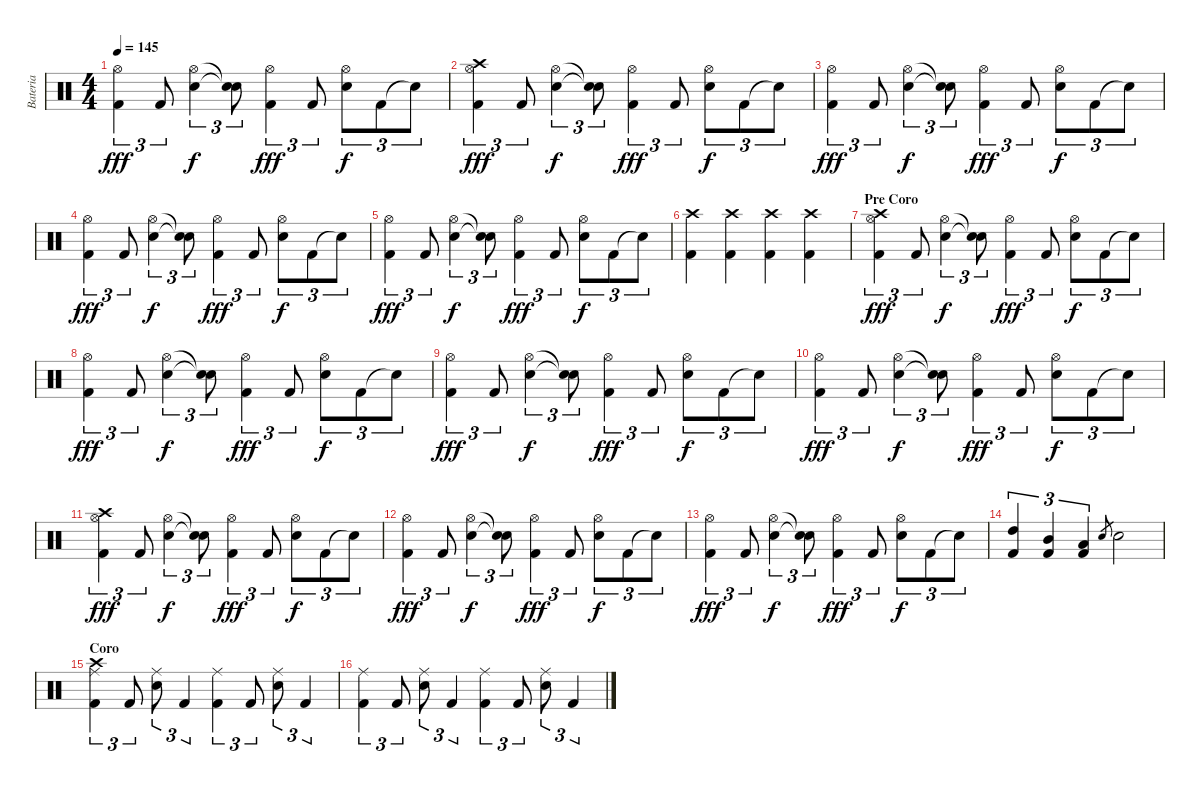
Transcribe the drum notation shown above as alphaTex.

\track ("Bateria" "Bateria") {instrument percussion}
\staff {score}
\articulation defaults
\ts (4 4)
\tempo 145
\clef neutral
\ks c
("Hi-Hat (open)" "Kick (hit) 2").4{tu (3 2) dy fff} "Kick (hit) 2".8{tu (3 2)} ("Hi-Hat (open)" "Snare (hit) 2").4{tu (3 2) dy f} ("Snare (hit)"{t} "Snare (hit)"{t}).8{tu (3 2)} ("Hi-Hat (open)" "Kick (hit) 2").4{tu (3 2) dy fff} "Kick (hit) 2".8{tu (3 2)} ("Hi-Hat (open)" "Snare (hit) 2").8{tu (3 2) dy f} "Kick (hit) 2".8{tu (3 2)} "Snare (hit)"{t}.8{tu (3 2)} |
("Hi-Hat (open)" "Kick (hit) 2" "Crash high (hit)").4{tu (3 2) dy fff} "Kick (hit) 2".8{tu (3 2)} ("Hi-Hat (open)" "Snare (hit) 2").4{tu (3 2) dy f} ("Snare (hit)"{t} "Snare (hit)"{t}).8{tu (3 2)} ("Hi-Hat (open)" "Kick (hit) 2").4{tu (3 2) dy fff} "Kick (hit) 2".8{tu (3 2)} ("Hi-Hat (open)" "Snare (hit) 2").8{tu (3 2) dy f} "Kick (hit) 2".8{tu (3 2)} "Snare (hit)"{t}.8{tu (3 2)} |
("Hi-Hat (open)" "Kick (hit) 2").4{tu (3 2) dy fff} "Kick (hit) 2".8{tu (3 2)} ("Hi-Hat (open)" "Snare (hit) 2").4{tu (3 2) dy f} ("Snare (hit)"{t} "Snare (hit)"{t}).8{tu (3 2)} ("Hi-Hat (open)" "Kick (hit) 2").4{tu (3 2) dy fff} "Kick (hit) 2".8{tu (3 2)} ("Hi-Hat (open)" "Snare (hit) 2").8{tu (3 2) dy f} "Kick (hit) 2".8{tu (3 2)} "Snare (hit)"{t}.8{tu (3 2)} |
("Hi-Hat (open)" "Kick (hit) 2").4{tu (3 2) dy fff} "Kick (hit) 2".8{tu (3 2)} ("Hi-Hat (open)" "Snare (hit) 2").4{tu (3 2) dy f} ("Snare (hit)"{t} "Snare (hit)"{t}).8{tu (3 2)} ("Hi-Hat (open)" "Kick (hit) 2").4{tu (3 2) dy fff} "Kick (hit) 2".8{tu (3 2)} ("Hi-Hat (open)" "Snare (hit) 2").8{tu (3 2) dy f} "Kick (hit) 2".8{tu (3 2)} "Snare (hit)"{t}.8{tu (3 2)} |
("Hi-Hat (open)" "Kick (hit) 2").4{tu (3 2) dy fff} "Kick (hit) 2".8{tu (3 2)} ("Hi-Hat (open)" "Snare (hit) 2").4{tu (3 2) dy f} ("Snare (hit)"{t} "Snare (hit)"{t}).8{tu (3 2)} ("Hi-Hat (open)" "Kick (hit) 2").4{tu (3 2) dy fff} "Kick (hit) 2".8{tu (3 2)} ("Hi-Hat (open)" "Snare (hit) 2").8{tu (3 2) dy f} "Kick (hit) 2".8{tu (3 2)} "Snare (hit)"{t}.8{tu (3 2)} |
("Kick (hit) 2" "Crash high (hit)").4 ("Kick (hit) 2" "Crash high (hit)").4 ("Kick (hit) 2" "Crash high (hit)").4 ("Kick (hit) 2" "Crash high (hit)").4 |
\section ("" "Pre Coro")
("Hi-Hat (open)" "Kick (hit) 2" "Crash high (hit)").4{tu (3 2) dy fff} "Kick (hit) 2".8{tu (3 2)} ("Hi-Hat (open)" "Snare (hit) 2").4{tu (3 2) dy f} ("Snare (hit)"{t} "Snare (hit)"{t}).8{tu (3 2)} ("Hi-Hat (open)" "Kick (hit) 2").4{tu (3 2) dy fff} "Kick (hit) 2".8{tu (3 2)} ("Hi-Hat (open)" "Snare (hit) 2").8{tu (3 2) dy f} "Kick (hit) 2".8{tu (3 2)} "Snare (hit)"{t}.8{tu (3 2)} |
("Hi-Hat (open)" "Kick (hit) 2").4{tu (3 2) dy fff} "Kick (hit) 2".8{tu (3 2)} ("Hi-Hat (open)" "Snare (hit) 2").4{tu (3 2) dy f} ("Snare (hit)"{t} "Snare (hit)"{t}).8{tu (3 2)} ("Hi-Hat (open)" "Kick (hit) 2").4{tu (3 2) dy fff} "Kick (hit) 2".8{tu (3 2)} ("Hi-Hat (open)" "Snare (hit) 2").8{tu (3 2) dy f} "Kick (hit) 2".8{tu (3 2)} "Snare (hit)"{t}.8{tu (3 2)} |
("Hi-Hat (open)" "Kick (hit) 2").4{tu (3 2) dy fff} "Kick (hit) 2".8{tu (3 2)} ("Hi-Hat (open)" "Snare (hit) 2").4{tu (3 2) dy f} ("Snare (hit)"{t} "Snare (hit)"{t}).8{tu (3 2)} ("Hi-Hat (open)" "Kick (hit) 2").4{tu (3 2) dy fff} "Kick (hit) 2".8{tu (3 2)} ("Hi-Hat (open)" "Snare (hit) 2").8{tu (3 2) dy f} "Kick (hit) 2".8{tu (3 2)} "Snare (hit)"{t}.8{tu (3 2)} |
("Hi-Hat (open)" "Kick (hit) 2").4{tu (3 2) dy fff} "Kick (hit) 2".8{tu (3 2)} ("Hi-Hat (open)" "Snare (hit) 2").4{tu (3 2) dy f} ("Snare (hit)"{t} "Snare (hit)"{t}).8{tu (3 2)} ("Hi-Hat (open)" "Kick (hit) 2").4{tu (3 2) dy fff} "Kick (hit) 2".8{tu (3 2)} ("Hi-Hat (open)" "Snare (hit) 2").8{tu (3 2) dy f} "Kick (hit) 2".8{tu (3 2)} "Snare (hit)"{t}.8{tu (3 2)} |
("Hi-Hat (open)" "Kick (hit) 2" "Crash high (hit)").4{tu (3 2) dy fff} "Kick (hit) 2".8{tu (3 2)} ("Hi-Hat (open)" "Snare (hit) 2").4{tu (3 2) dy f} ("Snare (hit)"{t} "Snare (hit)"{t}).8{tu (3 2)} ("Hi-Hat (open)" "Kick (hit) 2").4{tu (3 2) dy fff} "Kick (hit) 2".8{tu (3 2)} ("Hi-Hat (open)" "Snare (hit) 2").8{tu (3 2) dy f} "Kick (hit) 2".8{tu (3 2)} "Snare (hit)"{t}.8{tu (3 2)} |
("Hi-Hat (open)" "Kick (hit) 2").4{tu (3 2) dy fff} "Kick (hit) 2".8{tu (3 2)} ("Hi-Hat (open)" "Snare (hit) 2").4{tu (3 2) dy f} ("Snare (hit)"{t} "Snare (hit)"{t}).8{tu (3 2)} ("Hi-Hat (open)" "Kick (hit) 2").4{tu (3 2) dy fff} "Kick (hit) 2".8{tu (3 2)} ("Hi-Hat (open)" "Snare (hit) 2").8{tu (3 2) dy f} "Kick (hit) 2".8{tu (3 2)} "Snare (hit)"{t}.8{tu (3 2)} |
("Hi-Hat (open)" "Kick (hit) 2").4{tu (3 2) dy fff} "Kick (hit) 2".8{tu (3 2)} ("Hi-Hat (open)" "Snare (hit) 2").4{tu (3 2) dy f} ("Snare (hit)"{t} "Snare (hit)"{t}).8{tu (3 2)} ("Hi-Hat (open)" "Kick (hit) 2").4{tu (3 2) dy fff} "Kick (hit) 2".8{tu (3 2)} ("Hi-Hat (open)" "Snare (hit) 2").8{tu (3 2) dy f} "Kick (hit) 2".8{tu (3 2)} "Snare (hit)"{t}.8{tu (3 2)} |
("High Tom (hit)" "Kick (hit) 2").4{tu (3 2)} ("Mid Tom (hit)" "Kick (hit) 2").4{tu (3 2)} ("Low Tom (hit)" "Kick (hit) 2").4{tu (3 2)} "Snare (hit) 2".8{gr} "Snare (hit) 2".2 |
\section ("" "Coro")
("Ride (middle)" "Crash high (hit)" "Kick (hit) 2").4{tu (3 2)} "Kick (hit) 2".8{tu (3 2)} ("Ride (middle)" "Snare (hit) 2").8{tu (3 2)} "Kick (hit) 2".4{tu (3 2)} ("Ride (middle)" "Kick (hit) 2").4{tu (3 2)} "Kick (hit) 2".8{tu (3 2)} ("Ride (middle)" "Snare (hit) 2").8{tu (3 2)} "Kick (hit) 2".4{tu (3 2)} |
("Ride (middle)" "Kick (hit) 2").4{tu (3 2)} "Kick (hit) 2".8{tu (3 2)} ("Ride (middle)" "Snare (hit) 2").8{tu (3 2)} "Kick (hit) 2".4{tu (3 2)} ("Ride (middle)" "Kick (hit) 2").4{tu (3 2)} "Kick (hit) 2".8{tu (3 2)} ("Ride (middle)" "Snare (hit) 2").8{tu (3 2)} "Kick (hit) 2".4{tu (3 2)}
